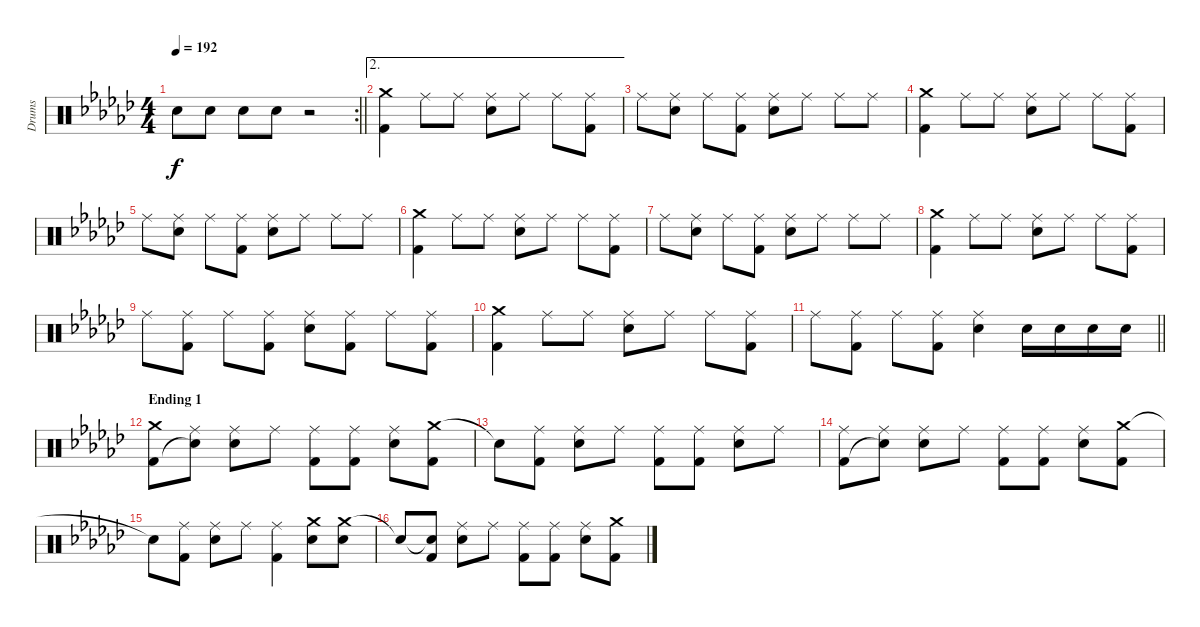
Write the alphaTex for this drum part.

\track ("Drums" "Drums") {instrument percussion}
\staff {score}
\articulation defaults
\rc 2
\ts (4 4)
\tempo 192
\clef neutral
\barLineRight lightlight
\ks ebminor "Electric Snare (hit)".8{dy f} "Electric Snare (hit)".8 "Electric Snare (hit)".8 "Electric Snare (hit)".8
r.2 |
\ae 2
("Crash medium (hit)" "Kick (hit) 2").4 "Ride (middle)".8 "Ride (middle)".8 ("Ride (middle)" "Electric Snare (hit)").8 "Ride (middle)".8 "Ride (middle)".8 ("Ride (middle)" "Kick (hit) 2").8 |
"Ride (middle)".8 ("Ride (middle)" "Electric Snare (hit)").8 "Ride (middle)".8 ("Ride (middle)" "Kick (hit) 2").8 ("Ride (middle)" "Electric Snare (hit)").8 "Ride (middle)".8 "Ride (middle)".8 "Ride (middle)".8 |
("Crash medium (hit)" "Kick (hit) 2").4 "Ride (middle)".8 "Ride (middle)".8 ("Ride (middle)" "Electric Snare (hit)").8 "Ride (middle)".8 "Ride (middle)".8 ("Ride (middle)" "Kick (hit) 2").8 |
"Ride (middle)".8 ("Ride (middle)" "Electric Snare (hit)").8 "Ride (middle)".8 ("Ride (middle)" "Kick (hit) 2").8 ("Ride (middle)" "Electric Snare (hit)").8 "Ride (middle)".8 "Ride (middle)".8 "Ride (middle)".8 |
("Crash medium (hit)" "Kick (hit) 2").4 "Ride (middle)".8 "Ride (middle)".8 ("Ride (middle)" "Electric Snare (hit)").8 "Ride (middle)".8 "Ride (middle)".8 ("Ride (middle)" "Kick (hit) 2").8 |
"Ride (middle)".8 ("Ride (middle)" "Electric Snare (hit)").8 "Ride (middle)".8 ("Ride (middle)" "Kick (hit) 2").8 ("Ride (middle)" "Electric Snare (hit)").8 "Ride (middle)".8 "Ride (middle)".8 "Ride (middle)".8 |
("Crash medium (hit)" "Kick (hit) 2").4 "Ride (middle)".8 "Ride (middle)".8 ("Ride (middle)" "Electric Snare (hit)").8 "Ride (middle)".8 "Ride (middle)".8 ("Ride (middle)" "Kick (hit) 2").8 |
"Ride (middle)".8 ("Ride (middle)" "Kick (hit) 2").8 "Ride (middle)".8 ("Ride (middle)" "Kick (hit) 2").8 ("Ride (middle)" "Electric Snare (hit)").8 ("Ride (middle)" "Kick (hit) 2").8 "Ride (middle)".8 ("Ride (middle)" "Kick (hit) 2").8 |
("Crash medium (hit)" "Kick (hit) 2").4 "Ride (middle)".8 "Ride (middle)".8 ("Ride (middle)" "Electric Snare (hit)").8 "Ride (middle)".8 "Ride (middle)".8 ("Ride (middle)" "Kick (hit) 2").8 |
\barLineRight lightlight "Ride (middle)".8
("Ride (middle)" "Kick (hit) 2").8 "Ride (middle)".8 ("Ride (middle)" "Kick (hit) 2").8 ("Ride (middle)" "Electric Snare (hit)").4 "Electric Snare (hit)".16 "Electric Snare (hit)".16 "Electric Snare (hit)".16 "Electric Snare (hit)".16 |
\section ("" "Ending 1")
("Crash medium (hit)" "Kick (hit) 2").8 ("Ride (middle)" "Snare (hit)"{t}).8 ("Ride (middle)" "Electric Snare (hit)").8 "Ride (middle)".8 ("Ride (middle)" "Kick (hit) 2").8 ("Ride (middle)" "Kick (hit) 2").8 ("Ride (middle)" "Electric Snare (hit)").8 ("Crash medium (hit)" "Kick (hit) 2").8 |
"Snare (hit)"{t}.8 ("Ride (middle)" "Kick (hit) 2").8 ("Ride (middle)" "Electric Snare (hit)").8 "Ride (middle)".8 ("Ride (middle)" "Kick (hit) 2").8 ("Ride (middle)" "Kick (hit) 2").8 ("Ride (middle)" "Electric Snare (hit)").8 "Ride (middle)".8 |
("Ride (middle)" "Kick (hit) 2").8 ("Ride (middle)" "Snare (hit)"{t}).8 ("Ride (middle)" "Electric Snare (hit)").8 "Ride (middle)".8 ("Ride (middle)" "Kick (hit) 2").8 ("Ride (middle)" "Kick (hit) 2").8 ("Ride (middle)" "Electric Snare (hit)").8 ("Crash medium (hit)" "Kick (hit) 2").8 |
"Snare (hit)"{t}.8 ("Ride (middle)" "Kick (hit) 2").8 ("Ride (middle)" "Electric Snare (hit)").8 "Ride (middle)".8 ("Ride (middle)" "Kick (hit) 2").4 ("Crash medium (hit)" "Electric Snare (hit)").8 ("Crash medium (hit)" "Electric Snare (hit)").8 |
"Snare (hit)"{t}.8 ("Snare (hit)"{t} "Kick (hit) 2").8 ("Ride (middle)" "Electric Snare (hit)").8 "Ride (middle)".8 ("Ride (middle)" "Kick (hit) 2").8 ("Ride (middle)" "Kick (hit) 2").8 ("Ride (middle)" "Electric Snare (hit)").8 ("Crash medium (hit)" "Kick (hit) 2").8
